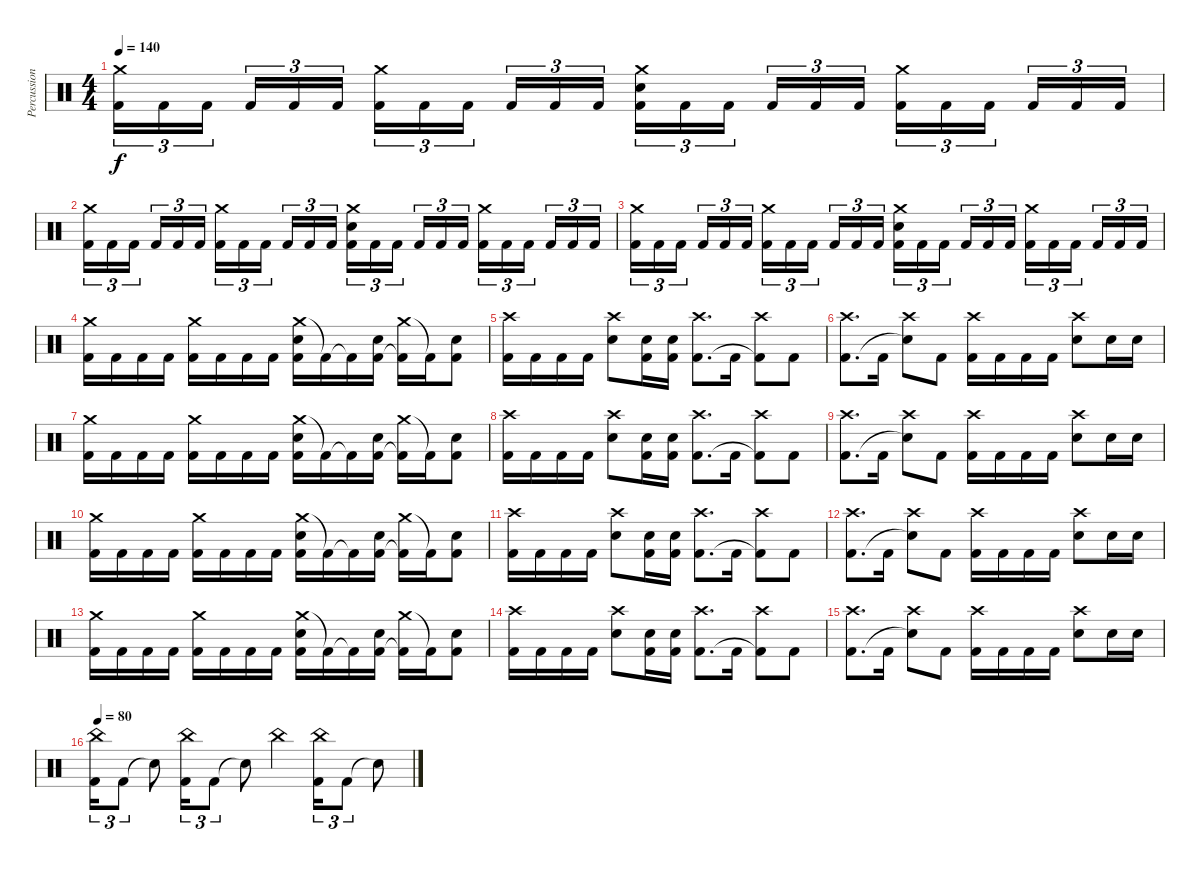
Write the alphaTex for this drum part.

\track ("Percussion" "Percussion") {instrument percussion}
\staff
\articulation defaults
\ts (4 4)
\tempo 140
\clef neutral
\ks c
("Crash medium (hit)" "Kick (hit) 2").16{tu (3 2) dy f} "Kick (hit) 2".16{tu (3 2)} "Kick (hit) 2".16{tu (3 2) beam splitsecondary} "Kick (hit) 2".16{tu (3 2)} "Kick (hit) 2".16{tu (3 2)} "Kick (hit) 2".16{tu (3 2)} ("Crash medium (hit)" "Kick (hit) 2").16{tu (3 2)} "Kick (hit) 2".16{tu (3 2)} "Kick (hit) 2".16{tu (3 2) beam splitsecondary} "Kick (hit) 2".16{tu (3 2)} "Kick (hit) 2".16{tu (3 2)} "Kick (hit) 2".16{tu (3 2)} ("Crash medium (hit)" "Electric Snare (hit)" "Kick (hit) 2").16{tu (3 2)} "Kick (hit) 2".16{tu (3 2)} "Kick (hit) 2".16{tu (3 2) beam splitsecondary} "Kick (hit) 2".16{tu (3 2)} "Kick (hit) 2".16{tu (3 2)} "Kick (hit) 2".16{tu (3 2)} ("Crash medium (hit)" "Kick (hit) 2").16{tu (3 2)} "Kick (hit) 2".16{tu (3 2)} "Kick (hit) 2".16{tu (3 2) beam splitsecondary} "Kick (hit) 2".16{tu (3 2)} "Kick (hit) 2".16{tu (3 2)} "Kick (hit) 2".16{tu (3 2)} |
("Crash medium (hit)" "Kick (hit) 2").16{tu (3 2)} "Kick (hit) 2".16{tu (3 2)} "Kick (hit) 2".16{tu (3 2) beam splitsecondary} "Kick (hit) 2".16{tu (3 2)} "Kick (hit) 2".16{tu (3 2)} "Kick (hit) 2".16{tu (3 2)} ("Crash medium (hit)" "Kick (hit) 2").16{tu (3 2)} "Kick (hit) 2".16{tu (3 2)} "Kick (hit) 2".16{tu (3 2) beam splitsecondary} "Kick (hit) 2".16{tu (3 2)} "Kick (hit) 2".16{tu (3 2)} "Kick (hit) 2".16{tu (3 2)} ("Crash medium (hit)" "Electric Snare (hit)" "Kick (hit) 2").16{tu (3 2)} "Kick (hit) 2".16{tu (3 2)} "Kick (hit) 2".16{tu (3 2) beam splitsecondary} "Kick (hit) 2".16{tu (3 2)} "Kick (hit) 2".16{tu (3 2)} "Kick (hit) 2".16{tu (3 2)} ("Crash medium (hit)" "Kick (hit) 2").16{tu (3 2)} "Kick (hit) 2".16{tu (3 2)} "Kick (hit) 2".16{tu (3 2) beam splitsecondary} "Kick (hit) 2".16{tu (3 2)} "Kick (hit) 2".16{tu (3 2)} "Kick (hit) 2".16{tu (3 2)} |
("Crash medium (hit)" "Kick (hit) 2").16{tu (3 2)} "Kick (hit) 2".16{tu (3 2)} "Kick (hit) 2".16{tu (3 2) beam splitsecondary} "Kick (hit) 2".16{tu (3 2)} "Kick (hit) 2".16{tu (3 2)} "Kick (hit) 2".16{tu (3 2)} ("Crash medium (hit)" "Kick (hit) 2").16{tu (3 2)} "Kick (hit) 2".16{tu (3 2)} "Kick (hit) 2".16{tu (3 2) beam splitsecondary} "Kick (hit) 2".16{tu (3 2)} "Kick (hit) 2".16{tu (3 2)} "Kick (hit) 2".16{tu (3 2)} ("Crash medium (hit)" "Electric Snare (hit)" "Kick (hit) 2").16{tu (3 2)} "Kick (hit) 2".16{tu (3 2)} "Kick (hit) 2".16{tu (3 2) beam splitsecondary} "Kick (hit) 2".16{tu (3 2)} "Kick (hit) 2".16{tu (3 2)} "Kick (hit) 2".16{tu (3 2)} ("Crash medium (hit)" "Kick (hit) 2").16{tu (3 2)} "Kick (hit) 2".16{tu (3 2)} "Kick (hit) 2".16{tu (3 2) beam splitsecondary} "Kick (hit) 2".16{tu (3 2)} "Kick (hit) 2".16{tu (3 2)} "Kick (hit) 2".16{tu (3 2)} |
("Crash medium (hit)" "Kick (hit) 2").16 "Kick (hit) 2".16 "Kick (hit) 2".16 "Kick (hit) 2".16 ("Crash medium (hit)" "Kick (hit) 2").16 "Kick (hit) 2".16 "Kick (hit) 2".16 "Kick (hit) 2".16 ("Crash medium (hit)" "Electric Snare (hit)" "Kick (hit) 2").16 "Kick (hit) 2"{t}.16 "Kick (hit) 2"{t}.16 ("Electric Snare (hit)" "Kick (hit) 2").16 ("Crash medium (hit)" "Kick (hit) 2"{t}).16 "Kick (hit) 2"{t}.16 ("Electric Snare (hit)" "Kick (hit) 2").8 |
("Crash high (hit)" "Kick (hit) 2").16 "Kick (hit) 2".16 "Kick (hit) 2".16 "Kick (hit) 2".16 ("Crash high (hit)" "Electric Snare (hit)").8 ("Electric Snare (hit)" "Kick (hit) 2").16 ("Electric Snare (hit)" "Kick (hit) 2").16 ("Crash high (hit)" "Kick (hit) 2").8{d} "Kick (hit) 2".16 ("Crash high (hit)" "Kick (hit) 2"{t}).8 "Kick (hit) 2".8 |
("Crash high (hit)" "Kick (hit) 2").8{d} "Kick (hit) 2".16 ("Crash high (hit)" "Snare (hit)"{t}).8 "Kick (hit) 2".8 ("Crash high (hit)" "Kick (hit) 2").16 "Kick (hit) 2".16 "Kick (hit) 2".16 "Kick (hit) 2".16 ("Crash high (hit)" "Electric Snare (hit)").8 "Electric Snare (hit)".16 "Electric Snare (hit)".16 |
("Crash medium (hit)" "Kick (hit) 2").16 "Kick (hit) 2".16 "Kick (hit) 2".16 "Kick (hit) 2".16 ("Crash medium (hit)" "Kick (hit) 2").16 "Kick (hit) 2".16 "Kick (hit) 2".16 "Kick (hit) 2".16 ("Crash medium (hit)" "Electric Snare (hit)" "Kick (hit) 2").16 "Kick (hit) 2"{t}.16 "Kick (hit) 2"{t}.16 ("Electric Snare (hit)" "Kick (hit) 2").16 ("Crash medium (hit)" "Kick (hit) 2"{t}).16 "Kick (hit) 2"{t}.16 ("Electric Snare (hit)" "Kick (hit) 2").8 |
("Crash high (hit)" "Kick (hit) 2").16 "Kick (hit) 2".16 "Kick (hit) 2".16 "Kick (hit) 2".16 ("Crash high (hit)" "Electric Snare (hit)").8 ("Electric Snare (hit)" "Kick (hit) 2").16 ("Electric Snare (hit)" "Kick (hit) 2").16 ("Crash high (hit)" "Kick (hit) 2").8{d} "Kick (hit) 2".16 ("Crash high (hit)" "Kick (hit) 2"{t}).8 "Kick (hit) 2".8 |
("Crash high (hit)" "Kick (hit) 2").8{d} "Kick (hit) 2".16 ("Crash high (hit)" "Snare (hit)"{t}).8 "Kick (hit) 2".8 ("Crash high (hit)" "Kick (hit) 2").16 "Kick (hit) 2".16 "Kick (hit) 2".16 "Kick (hit) 2".16 ("Crash high (hit)" "Electric Snare (hit)").8 "Electric Snare (hit)".16 "Electric Snare (hit)".16 |
("Crash medium (hit)" "Kick (hit) 2").16 "Kick (hit) 2".16 "Kick (hit) 2".16 "Kick (hit) 2".16 ("Crash medium (hit)" "Kick (hit) 2").16 "Kick (hit) 2".16 "Kick (hit) 2".16 "Kick (hit) 2".16 ("Crash medium (hit)" "Electric Snare (hit)" "Kick (hit) 2").16 "Kick (hit) 2"{t}.16 "Kick (hit) 2"{t}.16 ("Electric Snare (hit)" "Kick (hit) 2").16 ("Crash medium (hit)" "Kick (hit) 2"{t}).16 "Kick (hit) 2"{t}.16 ("Electric Snare (hit)" "Kick (hit) 2").8 |
("Crash high (hit)" "Kick (hit) 2").16 "Kick (hit) 2".16 "Kick (hit) 2".16 "Kick (hit) 2".16 ("Crash high (hit)" "Electric Snare (hit)").8 ("Electric Snare (hit)" "Kick (hit) 2").16 ("Electric Snare (hit)" "Kick (hit) 2").16 ("Crash high (hit)" "Kick (hit) 2").8{d} "Kick (hit) 2".16 ("Crash high (hit)" "Kick (hit) 2"{t}).8 "Kick (hit) 2".8 |
("Crash high (hit)" "Kick (hit) 2").8{d} "Kick (hit) 2".16 ("Crash high (hit)" "Snare (hit)"{t}).8 "Kick (hit) 2".8 ("Crash high (hit)" "Kick (hit) 2").16 "Kick (hit) 2".16 "Kick (hit) 2".16 "Kick (hit) 2".16 ("Crash high (hit)" "Electric Snare (hit)").8 "Electric Snare (hit)".16 "Electric Snare (hit)".16 |
("Crash medium (hit)" "Kick (hit) 2").16 "Kick (hit) 2".16 "Kick (hit) 2".16 "Kick (hit) 2".16 ("Crash medium (hit)" "Kick (hit) 2").16 "Kick (hit) 2".16 "Kick (hit) 2".16 "Kick (hit) 2".16 ("Crash medium (hit)" "Electric Snare (hit)" "Kick (hit) 2").16 "Kick (hit) 2"{t}.16 "Kick (hit) 2"{t}.16 ("Electric Snare (hit)" "Kick (hit) 2").16 ("Crash medium (hit)" "Kick (hit) 2"{t}).16 "Kick (hit) 2"{t}.16 ("Electric Snare (hit)" "Kick (hit) 2").8 |
("Crash high (hit)" "Kick (hit) 2").16 "Kick (hit) 2".16 "Kick (hit) 2".16 "Kick (hit) 2".16 ("Crash high (hit)" "Electric Snare (hit)").8 ("Electric Snare (hit)" "Kick (hit) 2").16 ("Electric Snare (hit)" "Kick (hit) 2").16 ("Crash high (hit)" "Kick (hit) 2").8{d} "Kick (hit) 2".16 ("Crash high (hit)" "Kick (hit) 2"{t}).8 "Kick (hit) 2".8 |
("Crash high (hit)" "Kick (hit) 2").8{d} "Kick (hit) 2".16 ("Crash high (hit)" "Snare (hit)"{t}).8 "Kick (hit) 2".8 ("Crash high (hit)" "Kick (hit) 2").16 "Kick (hit) 2".16 "Kick (hit) 2".16 "Kick (hit) 2".16 ("Crash high (hit)" "Electric Snare (hit)").8 "Electric Snare (hit)".16 "Electric Snare (hit)".16 |
\tempo 80
("China (hit)" "Kick (hit) 2").16{tu (3 2)} "Kick (hit) 2".8{tu (3 2)} "Snare (hit)"{t}.8 ("China (hit)" "Kick (hit) 2").16{tu (3 2)} "Kick (hit) 2".8{tu (3 2)} "Snare (hit)"{t}.8 "China (hit)".4 ("China (hit)" "Kick (hit) 2").16{tu (3 2)} "Kick (hit) 2".8{tu (3 2)} "Snare (hit)"{t}.8
